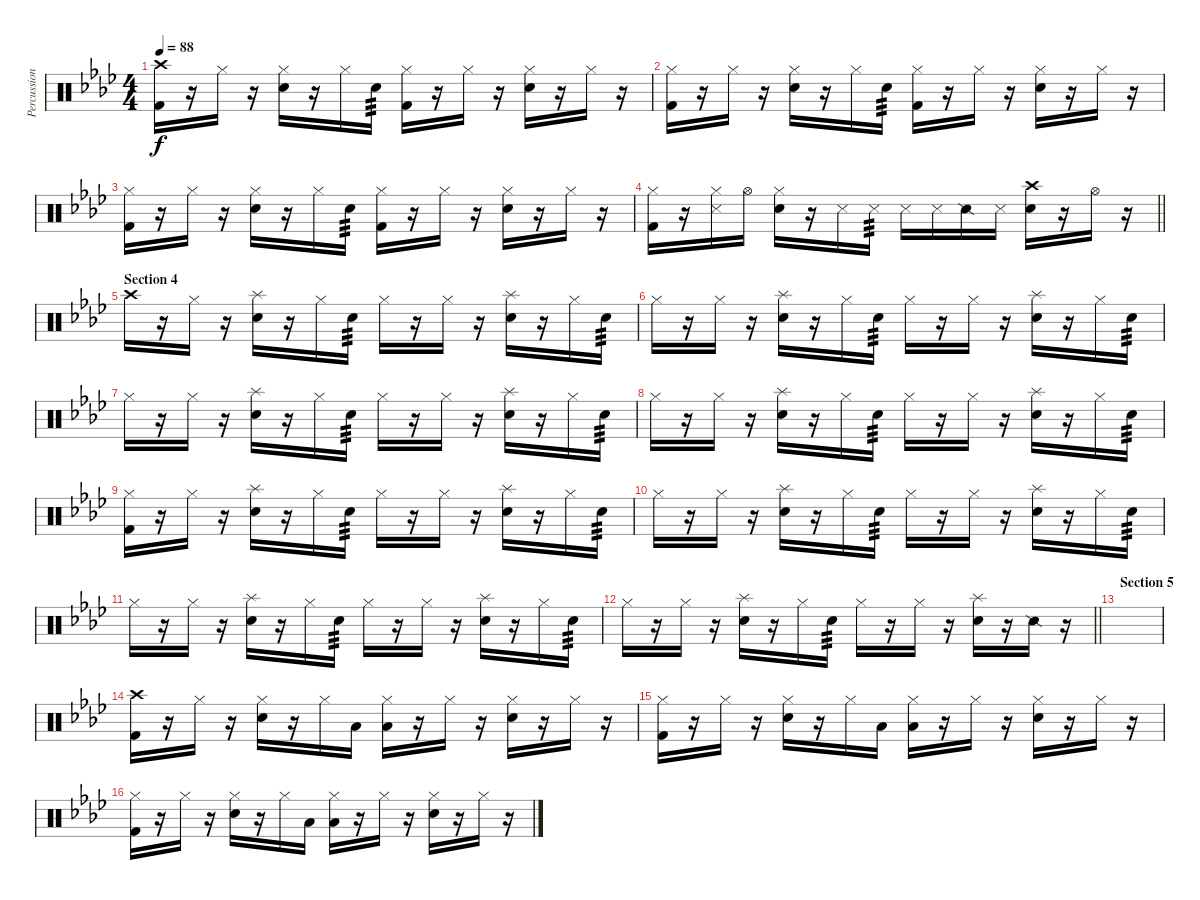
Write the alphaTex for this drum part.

\track ("Percussion" "Percussion") {instrument percussion}
\staff {score}
\articulation defaults
\ts (4 4)
\tempo 88
\clef neutral
\ks fminor
("Crash high (hit)" "Kick (hit) 2").16{dy f} r.16 "Hi-Hat (closed)".16 r.16 ("Hi-Hat (closed)" "Snare (hit) 2").16 r.16 "Hi-Hat (closed)".16 "Snare (hit) 2".16{tp 3} ("Hi-Hat (closed)" "Kick (hit) 2").16 r.16 "Hi-Hat (closed)".16 r.16 ("Hi-Hat (closed)" "Snare (hit) 2").16 r.16 "Hi-Hat (closed)".16 r.16 |
("Hi-Hat (closed)" "Kick (hit) 2").16 r.16 "Hi-Hat (closed)".16 r.16 ("Hi-Hat (closed)" "Snare (hit) 2").16 r.16 "Hi-Hat (closed)".16 "Snare (hit) 2".16{tp 3} ("Hi-Hat (closed)" "Kick (hit) 2").16 r.16 "Hi-Hat (closed)".16 r.16 ("Hi-Hat (closed)" "Snare (hit) 2").16 r.16 "Hi-Hat (closed)".16 r.16 |
("Hi-Hat (closed)" "Kick (hit) 2").16 r.16 "Hi-Hat (closed)".16 r.16 ("Hi-Hat (closed)" "Snare (hit) 2").16 r.16 "Hi-Hat (closed)".16 "Snare (hit) 2".16{tp 3} ("Hi-Hat (closed)" "Kick (hit) 2").16 r.16 "Hi-Hat (closed)".16 r.16 ("Hi-Hat (closed)" "Snare (hit) 2").16 r.16 "Hi-Hat (closed)".16 r.16 |
\barLineRight lightlight
("Hi-Hat (closed)" "Kick (hit) 2").16 r.16 ("Hi-Hat (closed)" "Snare (side stick) 3").16 "Hi-Hat (open)".16 ("Hi-Hat (closed)" "Snare (hit) 2").16 r.16 "Snare (side stick) 3".16 "Snare (side stick) 3".16{tp 3} "Snare (side stick) 3".16 "Snare (side stick) 3".16 "Snare (side stick) 2".16 "Snare (side stick) 3".16 ("Crash high (hit)" "Snare (hit) 2").16 r.16 "Hi-Hat (open)".16 r.16 |
\section ("" "Section 4")
"Crash high (hit)".16 r.16 "Hi-Hat (closed)".16 r.16 ("Splash (hit)" "Snare (hit) 2").16 r.16 "Hi-Hat (closed)".16 "Snare (hit) 2".16{tp 3} "Hi-Hat (closed)".16 r.16 "Hi-Hat (closed)".16 r.16 ("Splash (hit)" "Snare (hit) 2").16 r.16 "Hi-Hat (closed)".16 "Snare (hit) 2".16{tp 3} |
"Hi-Hat (closed)".16 r.16 "Hi-Hat (closed)".16 r.16 ("Splash (hit)" "Snare (hit) 2").16 r.16 "Hi-Hat (closed)".16 "Snare (hit) 2".16{tp 3} "Hi-Hat (closed)".16 r.16 "Hi-Hat (closed)".16 r.16 ("Splash (hit)" "Snare (hit) 2").16 r.16 "Hi-Hat (closed)".16 "Snare (hit) 2".16{tp 3} |
"Hi-Hat (closed)".16 r.16 "Hi-Hat (closed)".16 r.16 ("Splash (hit)" "Snare (hit) 2").16 r.16 "Hi-Hat (closed)".16 "Snare (hit) 2".16{tp 3} "Hi-Hat (closed)".16 r.16 "Hi-Hat (closed)".16 r.16 ("Splash (hit)" "Snare (hit) 2").16 r.16 "Hi-Hat (closed)".16 "Snare (hit) 2".16{tp 3} |
"Hi-Hat (closed)".16 r.16 "Hi-Hat (closed)".16 r.16 ("Splash (hit)" "Snare (hit) 2").16 r.16 "Hi-Hat (closed)".16 "Snare (hit) 2".16{tp 3} "Hi-Hat (closed)".16 r.16 "Hi-Hat (closed)".16 r.16 ("Splash (hit)" "Snare (hit) 2").16 r.16 "Hi-Hat (closed)".16 "Snare (hit) 2".16{tp 3} |
("Hi-Hat (closed)" "Kick (hit) 2").16 r.16 "Hi-Hat (closed)".16 r.16 ("Splash (hit)" "Snare (hit) 2").16 r.16 "Hi-Hat (closed)".16 "Snare (hit) 2".16{tp 3} "Hi-Hat (closed)".16 r.16 "Hi-Hat (closed)".16 r.16 ("Splash (hit)" "Snare (hit) 2").16 r.16 "Hi-Hat (closed)".16 "Snare (hit) 2".16{tp 3} |
"Hi-Hat (closed)".16 r.16 "Hi-Hat (closed)".16 r.16 ("Splash (hit)" "Snare (hit) 2").16 r.16 "Hi-Hat (closed)".16 "Snare (hit) 2".16{tp 3} "Hi-Hat (closed)".16 r.16 "Hi-Hat (closed)".16 r.16 ("Splash (hit)" "Snare (hit) 2").16 r.16 "Hi-Hat (closed)".16 "Snare (hit) 2".16{tp 3} |
"Hi-Hat (closed)".16 r.16 "Hi-Hat (closed)".16 r.16 ("Splash (hit)" "Snare (hit) 2").16 r.16 "Hi-Hat (closed)".16 "Snare (hit) 2".16{tp 3} "Hi-Hat (closed)".16 r.16 "Hi-Hat (closed)".16 r.16 ("Splash (hit)" "Snare (hit) 2").16 r.16 "Hi-Hat (closed)".16 "Snare (hit) 2".16{tp 3} |
\barLineRight lightlight "Hi-Hat (closed)".16
r.16 "Hi-Hat (closed)".16 r.16 ("Splash (hit)" "Snare (hit) 2").16 r.16 "Hi-Hat (closed)".16 "Snare (hit) 2".16{tp 3} "Hi-Hat (closed)".16 r.16 "Hi-Hat (closed)".16 r.16 ("Splash (hit)" "Snare (hit) 2").16 r.16 "Snare (side stick) 2".16 r.16 |
\section ("" "Section 5")
|
("Crash high (hit)" "Kick (hit) 2").16 r.16 "Hi-Hat (closed)".16 r.16 ("Hi-Hat (closed)" "Snare (hit) 2").16 r.16 "Hi-Hat (closed)".16 "Low Tom (hit)".16 ("Hi-Hat (closed)" "Low Tom (hit)").16 r.16 "Hi-Hat (closed)".16 r.16 ("Hi-Hat (closed)" "Snare (hit) 2").16 r.16 "Hi-Hat (closed)".16 r.16 |
("Hi-Hat (closed)" "Kick (hit) 2").16 r.16 "Hi-Hat (closed)".16 r.16 ("Hi-Hat (closed)" "Snare (hit) 2").16 r.16 "Hi-Hat (closed)".16 "Low Tom (hit)".16 ("Hi-Hat (closed)" "Low Tom (hit)").16 r.16 "Hi-Hat (closed)".16 r.16 ("Hi-Hat (closed)" "Snare (hit) 2").16 r.16 "Hi-Hat (closed)".16 r.16 |
("Hi-Hat (closed)" "Kick (hit) 2").16 r.16 "Hi-Hat (closed)".16 r.16 ("Hi-Hat (closed)" "Snare (hit) 2").16 r.16 "Hi-Hat (closed)".16 "Low Tom (hit)".16 ("Hi-Hat (closed)" "Low Tom (hit)").16 r.16 "Hi-Hat (closed)".16 r.16 ("Hi-Hat (closed)" "Snare (hit) 2").16 r.16 "Hi-Hat (closed)".16 r.16
